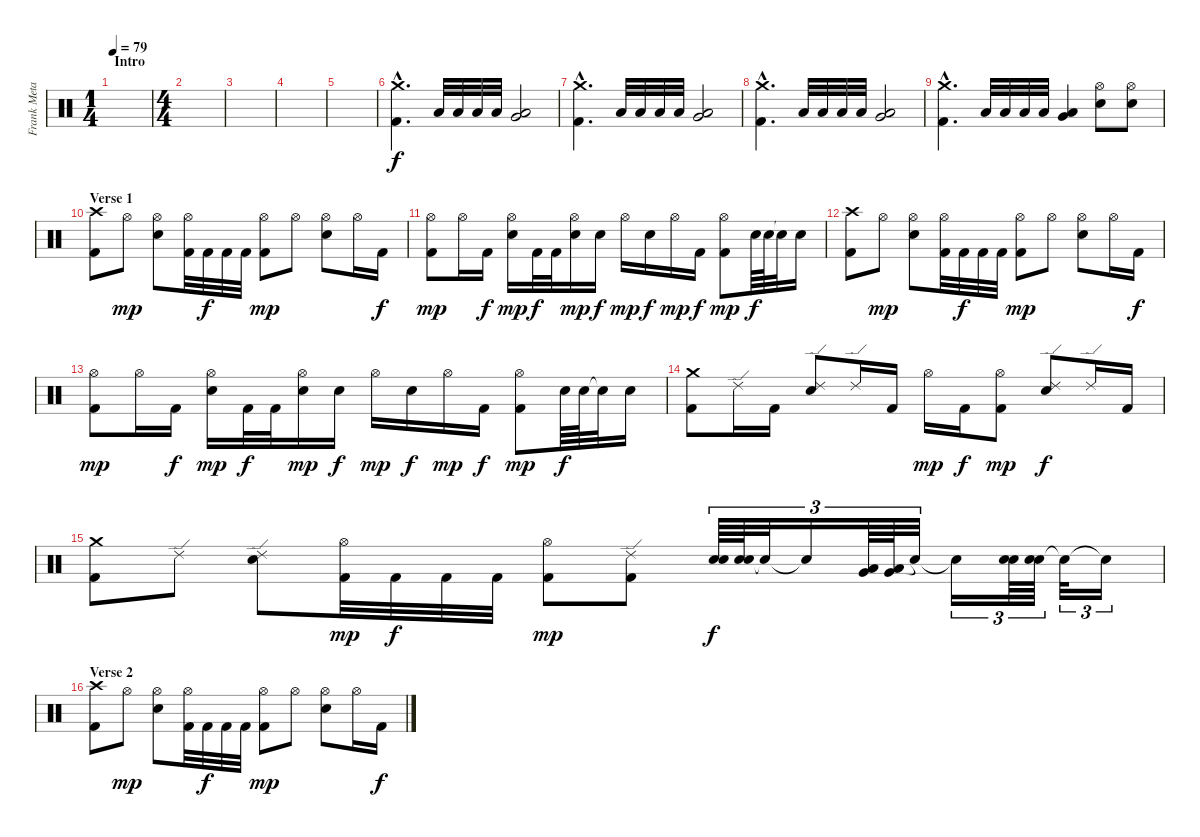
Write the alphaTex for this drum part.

\track ("Frank Metayer" "Frank Meta") {instrument percussion}
\staff {score}
\articulation defaults
\ts (1 4)
\section ("" "Intro")
\tempo 79
\clef neutral
\ks c
|
\ts (4 4)
|
|
|
|
("Kick (hit) 2"{hac} "Crash medium (hit)"{hac}).4{d} "Low Tom (hit)".32 "Low Tom (hit)".32 "Low Tom (hit)".32 "Low Tom (hit)".32 ("Low Tom (hit)" "Very Low Tom (hit)").2 |
("Kick (hit) 2"{hac} "Crash medium (hit)"{hac}).4{d} "Low Tom (hit)".32 "Low Tom (hit)".32 "Low Tom (hit)".32 "Low Tom (hit)".32 ("Low Tom (hit)" "Very Low Tom (hit)").2 |
("Kick (hit) 2"{hac} "Crash medium (hit)"{hac}).4{d} "Low Tom (hit)".32 "Low Tom (hit)".32 "Low Tom (hit)".32 "Low Tom (hit)".32 ("Low Tom (hit)" "Very Low Tom (hit)").2 |
("Kick (hit) 2"{hac} "Crash medium (hit)"{hac}).4{d} "Low Tom (hit)".32 "Low Tom (hit)".32 "Low Tom (hit)".32 "Low Tom (hit)".32 ("Low Tom (hit)" "Very Low Tom (hit)").4 ("Hi-Hat (open)" "Snare (hit) 2").8 ("Hi-Hat (open)" "Snare (hit) 2").8 |
\section ("" "Verse 1")
("Kick (hit) 2" "Crash high (hit)").8 "Hi-Hat (open)".8{dy mp} ("Hi-Hat (open)" "Snare (hit) 2").8 ("Kick (hit) 2" "Hi-Hat (open)").32 "Kick (hit) 2".32{dy f} "Kick (hit) 2".32 "Kick (hit) 2".32 ("Kick (hit) 2" "Hi-Hat (open)").8{dy mp} "Hi-Hat (open)".8 ("Hi-Hat (open)" "Snare (hit) 2").8 "Hi-Hat (open)".16 "Kick (hit) 2".16{dy f} |
("Kick (hit) 2" "Hi-Hat (open)").8{dy mp} "Hi-Hat (open)".16 "Kick (hit) 2".16{dy f} ("Hi-Hat (open)" "Snare (hit) 2").16{dy mp} "Kick (hit) 2".32{dy f} "Kick (hit) 2".32 ("Hi-Hat (open)" "Snare (hit) 2").16{dy mp} "Snare (hit) 2".16{dy f} "Hi-Hat (open)".16{dy mp} "Snare (hit) 2".16{dy f} "Hi-Hat (open)".16{dy mp} "Kick (hit) 2".16{dy f} ("Kick (hit) 2" "Hi-Hat (open)").8{dy mp} "Snare (hit) 2".64{dy f} "Snare (hit) 2".64 "Snare (hit)"{t}.32 "Snare (hit) 2".16 |
("Kick (hit) 2" "Crash high (hit)").8 "Hi-Hat (open)".8{dy mp} ("Hi-Hat (open)" "Snare (hit) 2").8 ("Kick (hit) 2" "Hi-Hat (open)").32 "Kick (hit) 2".32{dy f} "Kick (hit) 2".32 "Kick (hit) 2".32 ("Kick (hit) 2" "Hi-Hat (open)").8{dy mp} "Hi-Hat (open)".8 ("Hi-Hat (open)" "Snare (hit) 2").8 "Hi-Hat (open)".16 "Kick (hit) 2".16{dy f} |
("Kick (hit) 2" "Hi-Hat (open)").8{dy mp} "Hi-Hat (open)".16 "Kick (hit) 2".16{dy f} ("Hi-Hat (open)" "Snare (hit) 2").16{dy mp} "Kick (hit) 2".32{dy f} "Kick (hit) 2".32 ("Hi-Hat (open)" "Snare (hit) 2").16{dy mp} "Snare (hit) 2".16{dy f} "Hi-Hat (open)".16{dy mp} "Snare (hit) 2".16{dy f} "Hi-Hat (open)".16{dy mp} "Kick (hit) 2".16{dy f} ("Kick (hit) 2" "Hi-Hat (open)").8{dy mp} "Snare (hit) 2".64{dy f} "Snare (hit) 2".64 "Snare (hit)"{t}.32 "Snare (hit) 2".16 |
("Kick (hit) 2" "Crash medium (hit)").8 "Ride (edge) 2".16 "Kick (hit) 2".16 ("Ride (edge) 2" "Snare (hit) 2").8 "Ride (edge) 2".16 "Kick (hit) 2".16 "Hi-Hat (open)".16{dy mp} "Kick (hit) 2".16{dy f} ("Kick (hit) 2" "Hi-Hat (open)").8{dy mp} ("Ride (edge) 2" "Snare (hit) 2").8{dy f} "Ride (edge) 2".16 "Kick (hit) 2".16 |
("Kick (hit) 2" "Crash medium (hit)").8 "Ride (edge) 2".8 ("Ride (edge) 2" "Snare (hit) 2").8 ("Kick (hit) 2" "Hi-Hat (open)").32{dy mp} "Kick (hit) 2".32{dy f} "Kick (hit) 2".32 "Kick (hit) 2".32 ("Kick (hit) 2" "Hi-Hat (open)").8{dy mp} ("Kick (hit) 2" "Ride (edge) 2").8 ("Snare (hit) 2" "Snare (hit) 2").64{tu (3 2) dy f} ("Snare (hit) 2" "Snare (hit) 2").64{tu (3 2)} "Snare (hit)"{t}.32{tu (3 2)} "Snare (hit)"{t}.16{tu (3 2)} ("Low Tom (hit)" "Very Low Tom (hit)").64{tu (3 2)} ("Low Tom (hit)" "Very Low Tom (hit)").64{tu (3 2)} "Snare (hit)"{t}.32{tu (3 2)} "Snare (hit)"{t}.16{tu (3 2)} ("Snare (hit) 2" "Snare (hit) 2").64{tu (3 2)} ("Snare (hit) 2" "Snare (hit) 2").64{tu (3 2)} "Snare (hit)"{t}.32{tu (3 2)} "Snare (hit)"{t}.16{tu (3 2)} |
\section ("" "Verse 2")
("Kick (hit) 2" "Crash high (hit)").8 "Hi-Hat (open)".8{dy mp} ("Hi-Hat (open)" "Snare (hit) 2").8 ("Kick (hit) 2" "Hi-Hat (open)").32 "Kick (hit) 2".32{dy f} "Kick (hit) 2".32 "Kick (hit) 2".32 ("Kick (hit) 2" "Hi-Hat (open)").8{dy mp} "Hi-Hat (open)".8 ("Hi-Hat (open)" "Snare (hit) 2").8 "Hi-Hat (open)".16 "Kick (hit) 2".16{dy f}
